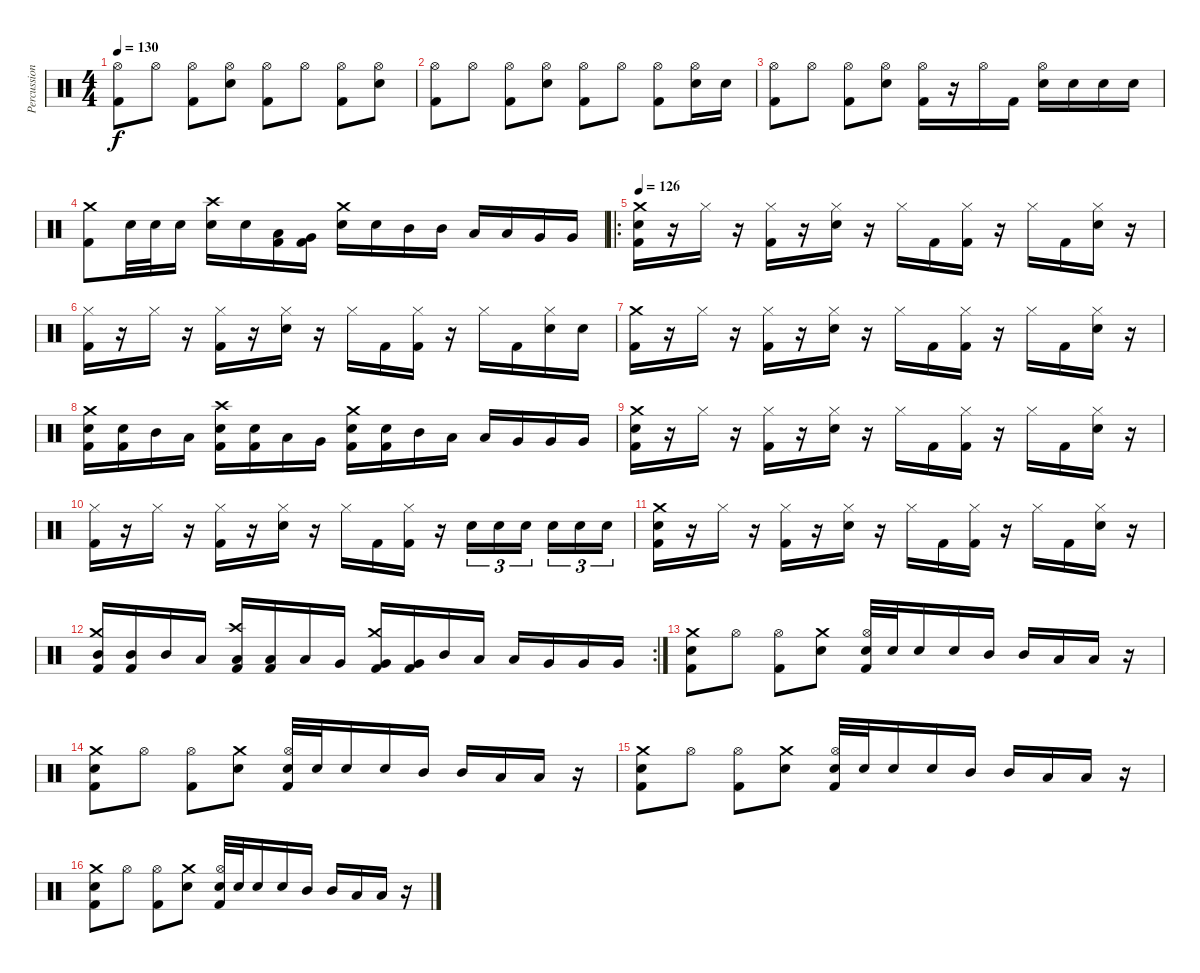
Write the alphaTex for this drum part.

\track ("Percussion" "Percussion") {instrument percussion}
\staff {score}
\articulation defaults
\ts (4 4)
\tempo 130
\clef neutral
\ks c
("Kick (hit) 2" "Hi-Hat (open)").8{dy f} "Hi-Hat (open)".8 ("Kick (hit) 2" "Hi-Hat (open)").8 ("Electric Snare (hit)" "Hi-Hat (open)").8 ("Kick (hit) 2" "Hi-Hat (open)").8 "Hi-Hat (open)".8 ("Kick (hit) 2" "Hi-Hat (open)").8 ("Electric Snare (hit)" "Hi-Hat (open)").8 |
("Kick (hit) 2" "Hi-Hat (open)").8 "Hi-Hat (open)".8 ("Kick (hit) 2" "Hi-Hat (open)").8 ("Electric Snare (hit)" "Hi-Hat (open)").8 ("Kick (hit) 2" "Hi-Hat (open)").8 "Hi-Hat (open)".8 ("Kick (hit) 2" "Hi-Hat (open)").8 ("Electric Snare (hit)" "Hi-Hat (open)").16 "Electric Snare (hit)".16 |
("Kick (hit) 2" "Hi-Hat (open)").8 "Hi-Hat (open)".8 ("Kick (hit) 2" "Hi-Hat (open)").8 ("Electric Snare (hit)" "Hi-Hat (open)").8 ("Kick (hit) 2" "Hi-Hat (open)").16 r.16 "Hi-Hat (open)".16 "Kick (hit) 2".16 ("Electric Snare (hit)" "Hi-Hat (open)").16 "Electric Snare (hit)".16 "Electric Snare (hit)".16 "Electric Snare (hit)".16 |
("Kick (hit) 2" "Crash medium (hit)").8 "Electric Snare (hit)".32 "Electric Snare (hit)".32 "Electric Snare (hit)".16 ("Electric Snare (hit)" "Crash high (hit)").16 "Electric Snare (hit)".16 ("Kick (hit) 2" "Low Tom (hit)").16 ("Kick (hit) 2" "Very Low Tom (hit)").16 ("Electric Snare (hit)" "Crash medium (hit)").16 "Electric Snare (hit)".16 "Mid Tom (hit)".16 "Mid Tom (hit)".16 "Low Tom (hit)".16 "Low Tom (hit)".16 "Very Low Tom (hit)".16 "Very Low Tom (hit)".16 |
\ro
\tempo 126
("Kick (hit) 2" "Electric Snare (hit)" "Crash medium (hit)").16 r.16 "Hi-Hat (closed)".16 r.16 ("Kick (hit) 2" "Hi-Hat (closed)").16 r.16 ("Electric Snare (hit)" "Hi-Hat (closed)").16 r.16 "Hi-Hat (closed)".16 "Kick (hit) 2".16 ("Kick (hit) 2" "Hi-Hat (closed)").16 r.16 "Hi-Hat (closed)".16 "Kick (hit) 2".16 ("Electric Snare (hit)" "Hi-Hat (closed)").16 r.16 |
("Kick (hit) 2" "Hi-Hat (closed)").16 r.16 "Hi-Hat (closed)".16 r.16 ("Kick (hit) 2" "Hi-Hat (closed)").16 r.16 ("Electric Snare (hit)" "Hi-Hat (closed)").16 r.16 "Hi-Hat (closed)".16 "Kick (hit) 2".16 ("Kick (hit) 2" "Hi-Hat (closed)").16 r.16 "Hi-Hat (closed)".16 "Kick (hit) 2".16 ("Electric Snare (hit)" "Hi-Hat (closed)").16 "Electric Snare (hit)".16 |
("Kick (hit) 2" "Crash medium (hit)").16 r.16 "Hi-Hat (closed)".16 r.16 ("Kick (hit) 2" "Hi-Hat (closed)").16 r.16 ("Electric Snare (hit)" "Hi-Hat (closed)").16 r.16 "Hi-Hat (closed)".16 "Kick (hit) 2".16 ("Kick (hit) 2" "Hi-Hat (closed)").16 r.16 "Hi-Hat (closed)".16 "Kick (hit) 2".16 ("Electric Snare (hit)" "Hi-Hat (closed)").16 r.16 |
("Kick (hit) 2" "Electric Snare (hit)" "Crash medium (hit)").16 ("Kick (hit) 2" "Electric Snare (hit)").16 "Mid Tom (hit)".16 "Low Tom (hit)".16 ("Kick (hit) 2" "Electric Snare (hit)" "Crash high (hit)").16 ("Kick (hit) 2" "Electric Snare (hit)").16 "Low Tom (hit)".16 "Very Low Tom (hit)".16 ("Kick (hit) 2" "Electric Snare (hit)" "Crash medium (hit)").16 ("Kick (hit) 2" "Electric Snare (hit)").16 "Mid Tom (hit)".16 "Low Tom (hit)".16 "Low Tom (hit)".16 "Very Low Tom (hit)".16 "Very Low Tom (hit)".16 "Very Low Tom (hit)".16 |
("Kick (hit) 2" "Electric Snare (hit)" "Crash medium (hit)").16 r.16 "Hi-Hat (closed)".16 r.16 ("Kick (hit) 2" "Hi-Hat (closed)").16 r.16 ("Electric Snare (hit)" "Hi-Hat (closed)").16 r.16 "Hi-Hat (closed)".16 "Kick (hit) 2".16 ("Kick (hit) 2" "Hi-Hat (closed)").16 r.16 "Hi-Hat (closed)".16 "Kick (hit) 2".16 ("Electric Snare (hit)" "Hi-Hat (closed)").16 r.16 |
("Kick (hit) 2" "Hi-Hat (closed)").16 r.16 "Hi-Hat (closed)".16 r.16 ("Kick (hit) 2" "Hi-Hat (closed)").16 r.16 ("Electric Snare (hit)" "Hi-Hat (closed)").16 r.16 "Hi-Hat (closed)".16 "Kick (hit) 2".16 ("Kick (hit) 2" "Hi-Hat (closed)").16 r.16 "Electric Snare (hit)".16{tu (3 2)} "Electric Snare (hit)".16{tu (3 2)} "Electric Snare (hit)".16{tu (3 2) beam splitsecondary} "Electric Snare (hit)".16{tu (3 2)} "Electric Snare (hit)".16{tu (3 2)} "Electric Snare (hit)".16{tu (3 2)} |
("Kick (hit) 2" "Electric Snare (hit)" "Crash medium (hit)").16 r.16 "Hi-Hat (closed)".16 r.16 ("Kick (hit) 2" "Hi-Hat (closed)").16 r.16 ("Electric Snare (hit)" "Hi-Hat (closed)").16 r.16 "Hi-Hat (closed)".16 "Kick (hit) 2".16 ("Kick (hit) 2" "Hi-Hat (closed)").16 r.16 "Hi-Hat (closed)".16 "Kick (hit) 2".16 ("Electric Snare (hit)" "Hi-Hat (closed)").16 r.16 |
\rc 2
("Kick (hit) 2" "Mid Tom (hit)" "Crash medium (hit)").16 ("Kick (hit) 2" "Mid Tom (hit)").16 "Mid Tom (hit)".16 "Low Tom (hit)".16 ("Kick (hit) 2" "Low Tom (hit)" "Crash high (hit)").16 ("Kick (hit) 2" "Low Tom (hit)").16 "Low Tom (hit)".16 "Very Low Tom (hit)".16 ("Kick (hit) 2" "Very Low Tom (hit)" "Crash medium (hit)").16 ("Kick (hit) 2" "Very Low Tom (hit)").16 "Mid Tom (hit)".16 "Low Tom (hit)".16 "Low Tom (hit)".16 "Very Low Tom (hit)".16 "Very Low Tom (hit)".16 "Very Low Tom (hit)".16 |
("Kick (hit) 2" "Electric Snare (hit)" "Crash medium (hit)").8 "Hi-Hat (open)".8 ("Kick (hit) 2" "Hi-Hat (open)").8 ("Electric Snare (hit)" "Crash medium (hit)").8 ("Kick (hit) 2" "Electric Snare (hit)" "Hi-Hat (open)").32 "Electric Snare (hit)".32 "Electric Snare (hit)".16 "Electric Snare (hit)".16 "Mid Tom (hit)".16 "Mid Tom (hit)".16 "Low Tom (hit)".16 "Low Tom (hit)".16 r.16 |
("Kick (hit) 2" "Electric Snare (hit)" "Crash medium (hit)").8 "Hi-Hat (open)".8 ("Kick (hit) 2" "Hi-Hat (open)").8 ("Electric Snare (hit)" "Crash medium (hit)").8 ("Kick (hit) 2" "Electric Snare (hit)" "Hi-Hat (open)").32 "Electric Snare (hit)".32 "Electric Snare (hit)".16 "Electric Snare (hit)".16 "Mid Tom (hit)".16 "Mid Tom (hit)".16 "Low Tom (hit)".16 "Low Tom (hit)".16 r.16 |
("Kick (hit) 2" "Electric Snare (hit)" "Crash medium (hit)").8 "Hi-Hat (open)".8 ("Kick (hit) 2" "Hi-Hat (open)").8 ("Electric Snare (hit)" "Crash medium (hit)").8 ("Kick (hit) 2" "Electric Snare (hit)" "Hi-Hat (open)").32 "Electric Snare (hit)".32 "Electric Snare (hit)".16 "Electric Snare (hit)".16 "Mid Tom (hit)".16 "Mid Tom (hit)".16 "Low Tom (hit)".16 "Low Tom (hit)".16 r.16 |
("Kick (hit) 2" "Electric Snare (hit)" "Crash medium (hit)").8 "Hi-Hat (open)".8 ("Kick (hit) 2" "Hi-Hat (open)").8 ("Electric Snare (hit)" "Crash medium (hit)").8 ("Kick (hit) 2" "Electric Snare (hit)" "Hi-Hat (open)").32 "Electric Snare (hit)".32 "Electric Snare (hit)".16 "Electric Snare (hit)".16 "Mid Tom (hit)".16 "Mid Tom (hit)".16 "Low Tom (hit)".16 "Low Tom (hit)".16 r.16
